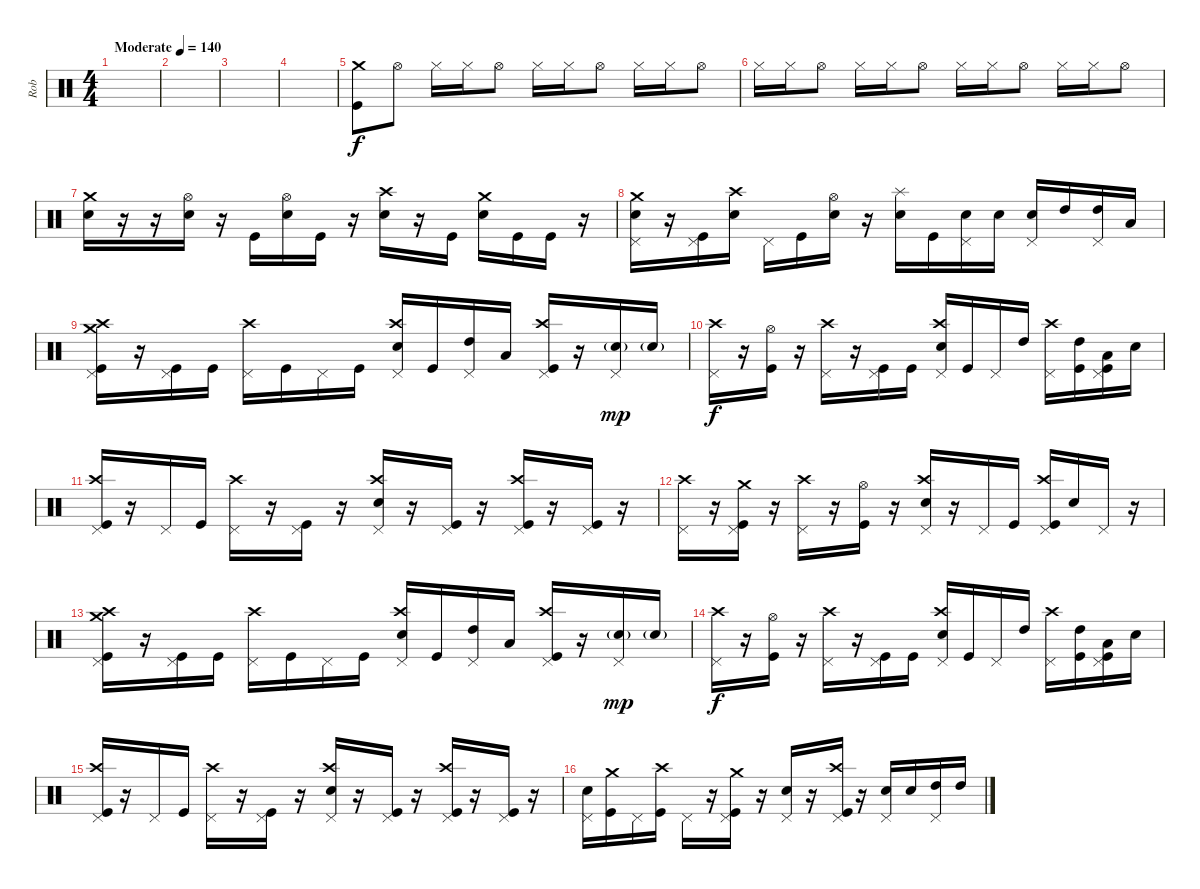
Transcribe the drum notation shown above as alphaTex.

\track ("Rob" "Rob") {instrument percussion}
\staff {score}
\articulation defaults
\ts (4 4)
\tempo (140 "Moderate")
\clef neutral
\ks c
|
|
|
|
("Crash medium (hit)" "Kick (hit)").8 "Hi-Hat (open)".8 "Hi-Hat (closed)".16 "Hi-Hat (closed)".16 "Hi-Hat (open)".8 "Hi-Hat (closed)".16 "Hi-Hat (closed)".16 "Hi-Hat (open)".8 "Hi-Hat (closed)".16 "Hi-Hat (closed)".16 "Hi-Hat (open)".8 |
"Hi-Hat (closed)".16 "Hi-Hat (closed)".16 "Hi-Hat (open)".8 "Hi-Hat (closed)".16 "Hi-Hat (closed)".16 "Hi-Hat (open)".8 "Hi-Hat (closed)".16 "Hi-Hat (closed)".16 "Hi-Hat (open)".8 "Hi-Hat (closed)".16 "Hi-Hat (closed)".16 "Hi-Hat (open)".8 |
("Electric Snare (hit)" "Crash medium (hit)").16 r.16 r.16 ("Electric Snare (hit)" "Hi-Hat (open)").16 r.16 "Kick (hit)".16 ("Electric Snare (hit)" "Hi-Hat (open)").16 "Kick (hit)".16 r.16 ("Electric Snare (hit)" "Crash high (hit)").16 r.16 "Kick (hit)".16 ("Electric Snare (hit)" "Crash medium (hit)").16 "Kick (hit)".16 "Kick (hit)".16 r.16 |
("Electric Snare (hit)" "Pedal Hi-Hat (hit)" "Crash medium (hit)").16 r.16 ("Pedal Hi-Hat (hit)" "Kick (hit)").16 ("Electric Snare (hit)" "Crash high (hit)").16 "Pedal Hi-Hat (hit)".16 "Kick (hit)".16 ("Electric Snare (hit)" "Hi-Hat (open)").16 r.16 ("Electric Snare (hit)" "Splash (hit)").16 "Kick (hit)".16 ("Electric Snare (hit)" "Pedal Hi-Hat (hit)").16 "Electric Snare (hit)".16 ("Electric Snare (hit)" "Pedal Hi-Hat (hit)").16 "High Tom (hit)".16 ("High Tom (hit)" "Pedal Hi-Hat (hit)").16 "Low Tom (hit)".16 |
("Crash medium (hit)" "Crash high (hit)" "Pedal Hi-Hat (hit)" "Kick (hit)").16 r.16 ("Pedal Hi-Hat (hit)" "Kick (hit)").16 "Kick (hit)".16 ("Crash high (hit)" "Pedal Hi-Hat (hit)").16 "Kick (hit)".16 "Pedal Hi-Hat (hit)".16 "Kick (hit)".16 ("Electric Snare (hit)" "Crash high (hit)" "Pedal Hi-Hat (hit)").16 "Kick (hit)".16 ("High Tom (hit)" "Pedal Hi-Hat (hit)").16 "Low Tom (hit)".16 ("Crash high (hit)" "Pedal Hi-Hat (hit)" "Kick (hit)").16 r.16 ("Electric Snare (hit)"{g} "Pedal Hi-Hat (hit)").16{dy mp} "Electric Snare (hit)"{g}.16 |
("Crash high (hit)" "Pedal Hi-Hat (hit)").16{dy f} r.16 ("Hi-Hat (open)" "Kick (hit)").16 r.16 ("Crash high (hit)" "Pedal Hi-Hat (hit)").16 r.16 ("Pedal Hi-Hat (hit)" "Kick (hit)").16 "Kick (hit)".16 ("Electric Snare (hit)" "Crash high (hit)" "Pedal Hi-Hat (hit)").16 "Kick (hit)".16 "Pedal Hi-Hat (hit)".16 "High Tom (hit)".16 ("Crash high (hit)" "Pedal Hi-Hat (hit)").16 ("High Tom (hit)" "Kick (hit)").16 ("Low Tom (hit)" "Pedal Hi-Hat (hit)" "Kick (hit)").16 "Electric Snare (hit)".16 |
("Crash high (hit)" "Pedal Hi-Hat (hit)" "Kick (hit)").16 r.16 "Pedal Hi-Hat (hit)".16 "Kick (hit)".16 ("Crash high (hit)" "Pedal Hi-Hat (hit)").16 r.16 ("Pedal Hi-Hat (hit)" "Kick (hit)").16 r.16 ("Electric Snare (hit)" "Crash high (hit)" "Pedal Hi-Hat (hit)").16 r.16 ("Pedal Hi-Hat (hit)" "Kick (hit)").16 r.16 ("Crash high (hit)" "Pedal Hi-Hat (hit)" "Kick (hit)").16 r.16 ("Pedal Hi-Hat (hit)" "Kick (hit)").16 r.16 |
("Crash high (hit)" "Pedal Hi-Hat (hit)").16 r.16 ("Crash medium (hit)" "Pedal Hi-Hat (hit)" "Kick (hit)").16 r.16 ("Crash high (hit)" "Pedal Hi-Hat (hit)").16 r.16 ("Hi-Hat (open)" "Kick (hit)").16 r.16 ("Electric Snare (hit)" "Crash high (hit)" "Pedal Hi-Hat (hit)").16 r.16 "Pedal Hi-Hat (hit)".16 "Kick (hit)".16 ("Crash high (hit)" "Pedal Hi-Hat (hit)" "Kick (hit)").16 "Electric Snare (hit)".16 "Pedal Hi-Hat (hit)".16 r.16 |
("Crash medium (hit)" "Crash high (hit)" "Pedal Hi-Hat (hit)" "Kick (hit)").16 r.16 ("Pedal Hi-Hat (hit)" "Kick (hit)").16 "Kick (hit)".16 ("Crash high (hit)" "Pedal Hi-Hat (hit)").16 "Kick (hit)".16 "Pedal Hi-Hat (hit)".16 "Kick (hit)".16 ("Electric Snare (hit)" "Crash high (hit)" "Pedal Hi-Hat (hit)").16 "Kick (hit)".16 ("High Tom (hit)" "Pedal Hi-Hat (hit)").16 "Low Tom (hit)".16 ("Crash high (hit)" "Pedal Hi-Hat (hit)" "Kick (hit)").16 r.16 ("Electric Snare (hit)"{g} "Pedal Hi-Hat (hit)").16{dy mp} "Electric Snare (hit)"{g}.16 |
("Crash high (hit)" "Pedal Hi-Hat (hit)").16{dy f} r.16 ("Hi-Hat (open)" "Kick (hit)").16 r.16 ("Crash high (hit)" "Pedal Hi-Hat (hit)").16 r.16 ("Pedal Hi-Hat (hit)" "Kick (hit)").16 "Kick (hit)".16 ("Electric Snare (hit)" "Crash high (hit)" "Pedal Hi-Hat (hit)").16 "Kick (hit)".16 "Pedal Hi-Hat (hit)".16 "High Tom (hit)".16 ("Crash high (hit)" "Pedal Hi-Hat (hit)").16 ("High Tom (hit)" "Kick (hit)").16 ("Low Tom (hit)" "Pedal Hi-Hat (hit)" "Kick (hit)").16 "Electric Snare (hit)".16 |
("Crash high (hit)" "Pedal Hi-Hat (hit)" "Kick (hit)").16 r.16 "Pedal Hi-Hat (hit)".16 "Kick (hit)".16 ("Crash high (hit)" "Pedal Hi-Hat (hit)").16 r.16 ("Pedal Hi-Hat (hit)" "Kick (hit)").16 r.16 ("Electric Snare (hit)" "Crash high (hit)" "Pedal Hi-Hat (hit)").16 r.16 ("Pedal Hi-Hat (hit)" "Kick (hit)").16 r.16 ("Crash high (hit)" "Pedal Hi-Hat (hit)" "Kick (hit)").16 r.16 ("Pedal Hi-Hat (hit)" "Kick (hit)").16 r.16 |
("Electric Snare (hit)" "Pedal Hi-Hat (hit)").16 ("Crash medium (hit)" "Kick (hit)").16 "Pedal Hi-Hat (hit)".16 ("Crash high (hit)" "Kick (hit)").16 "Pedal Hi-Hat (hit)".16 r.16 ("Crash medium (hit)" "Pedal Hi-Hat (hit)" "Kick (hit)").16 r.16 ("Electric Snare (hit)" "Pedal Hi-Hat (hit)").16 r.16 ("Crash high (hit)" "Pedal Hi-Hat (hit)" "Kick (hit)").16 r.16 ("Electric Snare (hit)" "Pedal Hi-Hat (hit)").16 "Electric Snare (hit)".16 ("High Tom (hit)" "Pedal Hi-Hat (hit)").16 "High Tom (hit)".16
